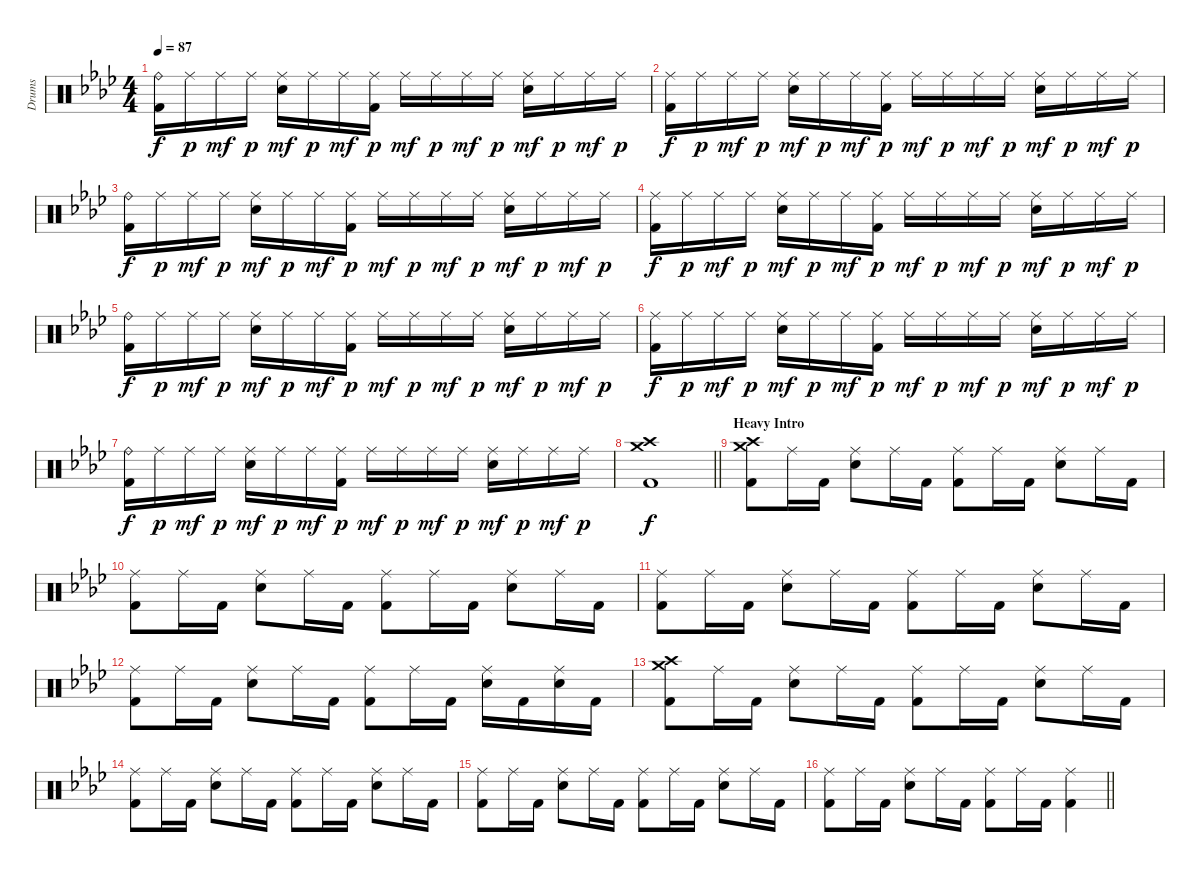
\track ("Drums" "Drums") {instrument percussion}
\staff {score}
\articulation defaults
\ts (4 4)
\section ("" " ")
\tempo 87
\clef neutral
\ks fminor
("Ride (bell)" "Kick (hit) 2").16{dy f} "Ride (middle)".16{dy p} "Ride (middle)".16{dy mf} "Ride (middle)".16{dy p} ("Ride (middle)" "Electric Snare (hit)").16{dy mf} "Ride (middle)".16{dy p} "Ride (middle)".16{dy mf} ("Ride (middle)" "Kick (hit) 2").16{dy p} "Ride (middle)".16{dy mf} "Ride (middle)".16{dy p} "Ride (middle)".16{dy mf} "Ride (middle)".16{dy p} ("Ride (middle)" "Electric Snare (hit)").16{dy mf} "Ride (middle)".16{dy p} "Ride (middle)".16{dy mf} "Ride (middle)".16{dy p} |
("Ride (middle)" "Kick (hit) 2").16{dy f} "Ride (middle)".16{dy p} "Ride (middle)".16{dy mf} "Ride (middle)".16{dy p} ("Ride (middle)" "Electric Snare (hit)").16{dy mf} "Ride (middle)".16{dy p} "Ride (middle)".16{dy mf} ("Ride (middle)" "Kick (hit) 2").16{dy p} "Ride (middle)".16{dy mf} "Ride (middle)".16{dy p} "Ride (middle)".16{dy mf} "Ride (middle)".16{dy p} ("Ride (middle)" "Electric Snare (hit)").16{dy mf} "Ride (middle)".16{dy p} "Ride (middle)".16{dy mf} "Ride (middle)".16{dy p} |
("Ride (bell)" "Kick (hit) 2").16{dy f} "Ride (middle)".16{dy p} "Ride (middle)".16{dy mf} "Ride (middle)".16{dy p} ("Ride (middle)" "Electric Snare (hit)").16{dy mf} "Ride (middle)".16{dy p} "Ride (middle)".16{dy mf} ("Ride (middle)" "Kick (hit) 2").16{dy p} "Ride (middle)".16{dy mf} "Ride (middle)".16{dy p} "Ride (middle)".16{dy mf} "Ride (middle)".16{dy p} ("Ride (middle)" "Electric Snare (hit)").16{dy mf} "Ride (middle)".16{dy p} "Ride (middle)".16{dy mf} "Ride (middle)".16{dy p} |
("Ride (middle)" "Kick (hit) 2").16{dy f} "Ride (middle)".16{dy p} "Ride (middle)".16{dy mf} "Ride (middle)".16{dy p} ("Ride (middle)" "Electric Snare (hit)").16{dy mf} "Ride (middle)".16{dy p} "Ride (middle)".16{dy mf} ("Ride (middle)" "Kick (hit) 2").16{dy p} "Ride (middle)".16{dy mf} "Ride (middle)".16{dy p} "Ride (middle)".16{dy mf} "Ride (middle)".16{dy p} ("Ride (middle)" "Electric Snare (hit)").16{dy mf} "Ride (middle)".16{dy p} "Ride (middle)".16{dy mf} "Ride (middle)".16{dy p} |
("Ride (bell)" "Kick (hit) 2").16{dy f} "Ride (middle)".16{dy p} "Ride (middle)".16{dy mf} "Ride (middle)".16{dy p} ("Ride (middle)" "Electric Snare (hit)").16{dy mf} "Ride (middle)".16{dy p} "Ride (middle)".16{dy mf} ("Ride (middle)" "Kick (hit) 2").16{dy p} "Ride (middle)".16{dy mf} "Ride (middle)".16{dy p} "Ride (middle)".16{dy mf} "Ride (middle)".16{dy p} ("Ride (middle)" "Electric Snare (hit)").16{dy mf} "Ride (middle)".16{dy p} "Ride (middle)".16{dy mf} "Ride (middle)".16{dy p} |
("Ride (middle)" "Kick (hit) 2").16{dy f} "Ride (middle)".16{dy p} "Ride (middle)".16{dy mf} "Ride (middle)".16{dy p} ("Ride (middle)" "Electric Snare (hit)").16{dy mf} "Ride (middle)".16{dy p} "Ride (middle)".16{dy mf} ("Ride (middle)" "Kick (hit) 2").16{dy p} "Ride (middle)".16{dy mf} "Ride (middle)".16{dy p} "Ride (middle)".16{dy mf} "Ride (middle)".16{dy p} ("Ride (middle)" "Electric Snare (hit)").16{dy mf} "Ride (middle)".16{dy p} "Ride (middle)".16{dy mf} "Ride (middle)".16{dy p} |
("Ride (bell)" "Kick (hit) 2").16{dy f} "Ride (middle)".16{dy p} "Ride (middle)".16{dy mf} "Ride (middle)".16{dy p} ("Ride (middle)" "Electric Snare (hit)").16{dy mf} "Ride (middle)".16{dy p} "Ride (middle)".16{dy mf} ("Ride (middle)" "Kick (hit) 2").16{dy p} "Ride (middle)".16{dy mf} "Ride (middle)".16{dy p} "Ride (middle)".16{dy mf} "Ride (middle)".16{dy p} ("Ride (middle)" "Electric Snare (hit)").16{dy mf} "Ride (middle)".16{dy p} "Ride (middle)".16{dy mf} "Ride (middle)".16{dy p} |
\barLineRight lightlight
("Crash medium (hit)" "Crash high (hit)" "Kick (hit) 2").1{dy f} |
\section ("" "Heavy Intro")
("Crash medium (hit)" "Crash high (hit)" "Kick (hit) 2").8{volume 15} "Ride (middle)".16 "Kick (hit) 2".16 ("Ride (middle)" "Electric Snare (hit)").8 "Ride (middle)".16 "Kick (hit) 2".16 ("Ride (middle)" "Kick (hit) 2").8 "Ride (middle)".16 "Kick (hit) 2".16 ("Ride (middle)" "Electric Snare (hit)").8 "Ride (middle)".16 "Kick (hit) 2".16 |
("Ride (middle)" "Kick (hit) 2").8 "Ride (middle)".16 "Kick (hit) 2".16 ("Ride (middle)" "Electric Snare (hit)").8 "Ride (middle)".16 "Kick (hit) 2".16 ("Ride (middle)" "Kick (hit) 2").8 "Ride (middle)".16 "Kick (hit) 2".16 ("Ride (middle)" "Electric Snare (hit)").8 "Ride (middle)".16 "Kick (hit) 2".16 |
("Ride (middle)" "Kick (hit) 2").8 "Ride (middle)".16 "Kick (hit) 2".16 ("Ride (middle)" "Electric Snare (hit)").8 "Ride (middle)".16 "Kick (hit) 2".16 ("Ride (middle)" "Kick (hit) 2").8 "Ride (middle)".16 "Kick (hit) 2".16 ("Ride (middle)" "Electric Snare (hit)").8 "Ride (middle)".16 "Kick (hit) 2".16 |
("Ride (middle)" "Kick (hit) 2").8 "Ride (middle)".16 "Kick (hit) 2".16 ("Ride (middle)" "Electric Snare (hit)").8 "Ride (middle)".16 "Kick (hit) 2".16 ("Ride (middle)" "Kick (hit) 2").8 "Ride (middle)".16 "Kick (hit) 2".16 ("Ride (middle)" "Electric Snare (hit)").16 "Kick (hit) 2".16 ("Ride (middle)" "Electric Snare (hit)").16 "Kick (hit) 2".16 |
("Crash medium (hit)" "Crash high (hit)" "Kick (hit) 2").8{volume 15} "Ride (middle)".16 "Kick (hit) 2".16 ("Ride (middle)" "Electric Snare (hit)").8 "Ride (middle)".16 "Kick (hit) 2".16 ("Ride (middle)" "Kick (hit) 2").8 "Ride (middle)".16 "Kick (hit) 2".16 ("Ride (middle)" "Electric Snare (hit)").8 "Ride (middle)".16 "Kick (hit) 2".16 |
("Ride (middle)" "Kick (hit) 2").8 "Ride (middle)".16 "Kick (hit) 2".16 ("Ride (middle)" "Electric Snare (hit)").8 "Ride (middle)".16 "Kick (hit) 2".16 ("Ride (middle)" "Kick (hit) 2").8 "Ride (middle)".16 "Kick (hit) 2".16 ("Ride (middle)" "Electric Snare (hit)").8 "Ride (middle)".16 "Kick (hit) 2".16 |
("Ride (middle)" "Kick (hit) 2").8 "Ride (middle)".16 "Kick (hit) 2".16 ("Ride (middle)" "Electric Snare (hit)").8 "Ride (middle)".16 "Kick (hit) 2".16 ("Ride (middle)" "Kick (hit) 2").8 "Ride (middle)".16 "Kick (hit) 2".16 ("Ride (middle)" "Electric Snare (hit)").8 "Ride (middle)".16 "Kick (hit) 2".16 |
\barLineRight lightlight
("Ride (middle)" "Kick (hit) 2").8 "Ride (middle)".16 "Kick (hit) 2".16 ("Ride (middle)" "Electric Snare (hit)").8 "Ride (middle)".16 "Kick (hit) 2".16 ("Ride (middle)" "Kick (hit) 2").8 "Ride (middle)".16 "Kick (hit) 2".16 ("Ride (middle)" "Kick (hit) 2").4
